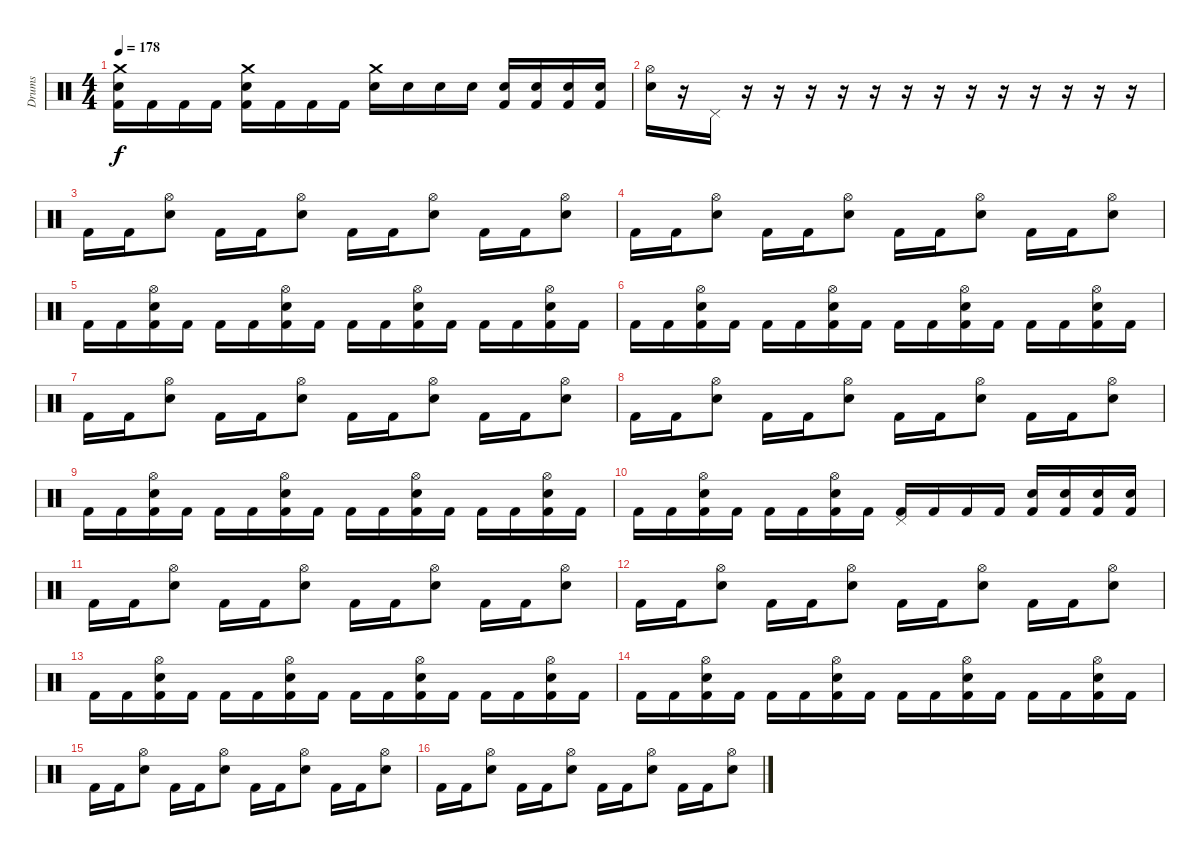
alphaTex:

\track ("Drums" "Drums") {instrument percussion}
\staff {score}
\articulation defaults
\ts (4 4)
\tempo 178
\clef neutral
\ks c
("Crash medium (hit)" "Electric Snare (hit)" "Kick (hit) 2").16{dy f} "Kick (hit) 2".16 "Kick (hit) 2".16 "Kick (hit) 2".16 ("Crash medium (hit)" "Electric Snare (hit)" "Kick (hit) 2").16 "Kick (hit) 2".16 "Kick (hit) 2".16 "Kick (hit) 2".16 ("Crash medium (hit)" "Electric Snare (hit)").16 "Electric Snare (hit)".16 "Electric Snare (hit)".16 "Electric Snare (hit)".16 ("Electric Snare (hit)" "Kick (hit) 2").16 ("Electric Snare (hit)" "Kick (hit) 2").16 ("Electric Snare (hit)" "Kick (hit) 2").16 ("Electric Snare (hit)" "Kick (hit) 2").16 |
("Hi-Hat (open)" "Electric Snare (hit)").16 r.16 "Pedal Hi-Hat (hit)".16 r.16 r.16 r.16 r.16 r.16 r.16 r.16 r.16 r.16 r.16 r.16 r.16 r.16 |
"Kick (hit) 2".16 "Kick (hit) 2".16 ("Hi-Hat (open)" "Electric Snare (hit)").8 "Kick (hit) 2".16 "Kick (hit) 2".16 ("Hi-Hat (open)" "Electric Snare (hit)").8 "Kick (hit) 2".16 "Kick (hit) 2".16 ("Hi-Hat (open)" "Electric Snare (hit)").8 "Kick (hit) 2".16 "Kick (hit) 2".16 ("Hi-Hat (open)" "Electric Snare (hit)").8 |
"Kick (hit) 2".16 "Kick (hit) 2".16 ("Hi-Hat (open)" "Electric Snare (hit)").8 "Kick (hit) 2".16 "Kick (hit) 2".16 ("Hi-Hat (open)" "Electric Snare (hit)").8 "Kick (hit) 2".16 "Kick (hit) 2".16 ("Hi-Hat (open)" "Electric Snare (hit)").8 "Kick (hit) 2".16 "Kick (hit) 2".16 ("Hi-Hat (open)" "Electric Snare (hit)").8 |
"Kick (hit) 2".16 "Kick (hit) 2".16 ("Hi-Hat (open)" "Electric Snare (hit)" "Kick (hit) 2").16 "Kick (hit) 2".16 "Kick (hit) 2".16 "Kick (hit) 2".16 ("Hi-Hat (open)" "Electric Snare (hit)" "Kick (hit) 2").16 "Kick (hit) 2".16 "Kick (hit) 2".16 "Kick (hit) 2".16 ("Hi-Hat (open)" "Electric Snare (hit)" "Kick (hit) 2").16 "Kick (hit) 2".16 "Kick (hit) 2".16 "Kick (hit) 2".16 ("Hi-Hat (open)" "Electric Snare (hit)" "Kick (hit) 2").16 "Kick (hit) 2".16 |
"Kick (hit) 2".16 "Kick (hit) 2".16 ("Hi-Hat (open)" "Electric Snare (hit)" "Kick (hit) 2").16 "Kick (hit) 2".16 "Kick (hit) 2".16 "Kick (hit) 2".16 ("Hi-Hat (open)" "Electric Snare (hit)" "Kick (hit) 2").16 "Kick (hit) 2".16 "Kick (hit) 2".16 "Kick (hit) 2".16 ("Hi-Hat (open)" "Electric Snare (hit)" "Kick (hit) 2").16 "Kick (hit) 2".16 "Kick (hit) 2".16 "Kick (hit) 2".16 ("Hi-Hat (open)" "Electric Snare (hit)" "Kick (hit) 2").16 "Kick (hit) 2".16 |
"Kick (hit) 2".16 "Kick (hit) 2".16 ("Hi-Hat (open)" "Electric Snare (hit)").8 "Kick (hit) 2".16 "Kick (hit) 2".16 ("Hi-Hat (open)" "Electric Snare (hit)").8 "Kick (hit) 2".16 "Kick (hit) 2".16 ("Hi-Hat (open)" "Electric Snare (hit)").8 "Kick (hit) 2".16 "Kick (hit) 2".16 ("Hi-Hat (open)" "Electric Snare (hit)").8 |
"Kick (hit) 2".16 "Kick (hit) 2".16 ("Hi-Hat (open)" "Electric Snare (hit)").8 "Kick (hit) 2".16 "Kick (hit) 2".16 ("Hi-Hat (open)" "Electric Snare (hit)").8 "Kick (hit) 2".16 "Kick (hit) 2".16 ("Hi-Hat (open)" "Electric Snare (hit)").8 "Kick (hit) 2".16 "Kick (hit) 2".16 ("Hi-Hat (open)" "Electric Snare (hit)").8 |
"Kick (hit) 2".16 "Kick (hit) 2".16 ("Hi-Hat (open)" "Electric Snare (hit)" "Kick (hit) 2").16 "Kick (hit) 2".16 "Kick (hit) 2".16 "Kick (hit) 2".16 ("Hi-Hat (open)" "Electric Snare (hit)" "Kick (hit) 2").16 "Kick (hit) 2".16 "Kick (hit) 2".16 "Kick (hit) 2".16 ("Hi-Hat (open)" "Electric Snare (hit)" "Kick (hit) 2").16 "Kick (hit) 2".16 "Kick (hit) 2".16 "Kick (hit) 2".16 ("Hi-Hat (open)" "Electric Snare (hit)" "Kick (hit) 2").16 "Kick (hit) 2".16 |
"Kick (hit) 2".16 "Kick (hit) 2".16 ("Hi-Hat (open)" "Electric Snare (hit)" "Kick (hit) 2").16 "Kick (hit) 2".16 "Kick (hit) 2".16 "Kick (hit) 2".16 ("Hi-Hat (open)" "Electric Snare (hit)" "Kick (hit) 2").16 "Kick (hit) 2".16 ("Pedal Hi-Hat (hit)" "Kick (hit) 2").16 "Kick (hit) 2".16 "Kick (hit) 2".16 "Kick (hit) 2".16 ("Electric Snare (hit)" "Kick (hit) 2").16 ("Electric Snare (hit)" "Kick (hit) 2").16 ("Electric Snare (hit)" "Kick (hit) 2").16 ("Electric Snare (hit)" "Kick (hit) 2").16 |
"Kick (hit) 2".16 "Kick (hit) 2".16 ("Hi-Hat (open)" "Electric Snare (hit)").8 "Kick (hit) 2".16 "Kick (hit) 2".16 ("Hi-Hat (open)" "Electric Snare (hit)").8 "Kick (hit) 2".16 "Kick (hit) 2".16 ("Hi-Hat (open)" "Electric Snare (hit)").8 "Kick (hit) 2".16 "Kick (hit) 2".16 ("Hi-Hat (open)" "Electric Snare (hit)").8 |
"Kick (hit) 2".16 "Kick (hit) 2".16 ("Hi-Hat (open)" "Electric Snare (hit)").8 "Kick (hit) 2".16 "Kick (hit) 2".16 ("Hi-Hat (open)" "Electric Snare (hit)").8 "Kick (hit) 2".16 "Kick (hit) 2".16 ("Hi-Hat (open)" "Electric Snare (hit)").8 "Kick (hit) 2".16 "Kick (hit) 2".16 ("Hi-Hat (open)" "Electric Snare (hit)").8 |
"Kick (hit) 2".16 "Kick (hit) 2".16 ("Hi-Hat (open)" "Electric Snare (hit)" "Kick (hit) 2").16 "Kick (hit) 2".16 "Kick (hit) 2".16 "Kick (hit) 2".16 ("Hi-Hat (open)" "Electric Snare (hit)" "Kick (hit) 2").16 "Kick (hit) 2".16 "Kick (hit) 2".16 "Kick (hit) 2".16 ("Hi-Hat (open)" "Electric Snare (hit)" "Kick (hit) 2").16 "Kick (hit) 2".16 "Kick (hit) 2".16 "Kick (hit) 2".16 ("Hi-Hat (open)" "Electric Snare (hit)" "Kick (hit) 2").16 "Kick (hit) 2".16 |
"Kick (hit) 2".16 "Kick (hit) 2".16 ("Hi-Hat (open)" "Electric Snare (hit)" "Kick (hit) 2").16 "Kick (hit) 2".16 "Kick (hit) 2".16 "Kick (hit) 2".16 ("Hi-Hat (open)" "Electric Snare (hit)" "Kick (hit) 2").16 "Kick (hit) 2".16 "Kick (hit) 2".16 "Kick (hit) 2".16 ("Hi-Hat (open)" "Electric Snare (hit)" "Kick (hit) 2").16 "Kick (hit) 2".16 "Kick (hit) 2".16 "Kick (hit) 2".16 ("Hi-Hat (open)" "Electric Snare (hit)" "Kick (hit) 2").16 "Kick (hit) 2".16 |
"Kick (hit) 2".16 "Kick (hit) 2".16 ("Hi-Hat (open)" "Electric Snare (hit)").8 "Kick (hit) 2".16 "Kick (hit) 2".16 ("Hi-Hat (open)" "Electric Snare (hit)").8 "Kick (hit) 2".16 "Kick (hit) 2".16 ("Hi-Hat (open)" "Electric Snare (hit)").8 "Kick (hit) 2".16 "Kick (hit) 2".16 ("Hi-Hat (open)" "Electric Snare (hit)").8 |
"Kick (hit) 2".16 "Kick (hit) 2".16 ("Hi-Hat (open)" "Electric Snare (hit)").8 "Kick (hit) 2".16 "Kick (hit) 2".16 ("Hi-Hat (open)" "Electric Snare (hit)").8 "Kick (hit) 2".16 "Kick (hit) 2".16 ("Hi-Hat (open)" "Electric Snare (hit)").8 "Kick (hit) 2".16 "Kick (hit) 2".16 ("Hi-Hat (open)" "Electric Snare (hit)").8
